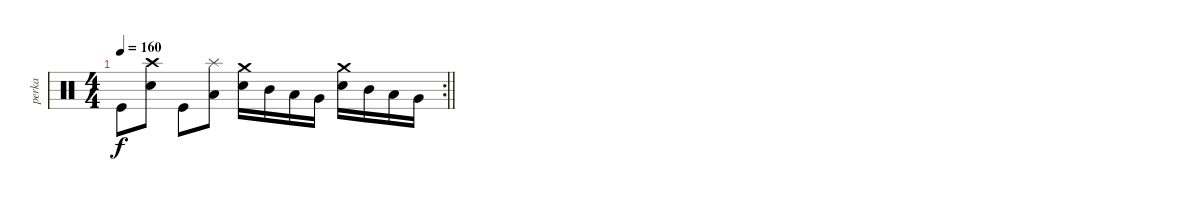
\track ("perka" "perka") {instrument percussion}
\staff {score}
\articulation defaults
\rc 2
\ts (4 4)
\tempo 160
\clef neutral
\barLineRight lightlight
\ks c "Kick (hit)".8{dy f}
("Crash high (hit)" "Snare (hit) 2").8 "Kick (hit)".8 ("Splash (hit)" "Low Tom (hit)").8 ("Crash medium (hit)" "Snare (hit) 2").16 "Mid Tom (hit)".16 "Low Tom (hit)".16 "Very Low Tom (hit)".16 ("Crash medium (hit)" "Snare (hit) 2").16 "Mid Tom (hit)".16 "Low Tom (hit)".16 "Very Low Tom (hit)".16
